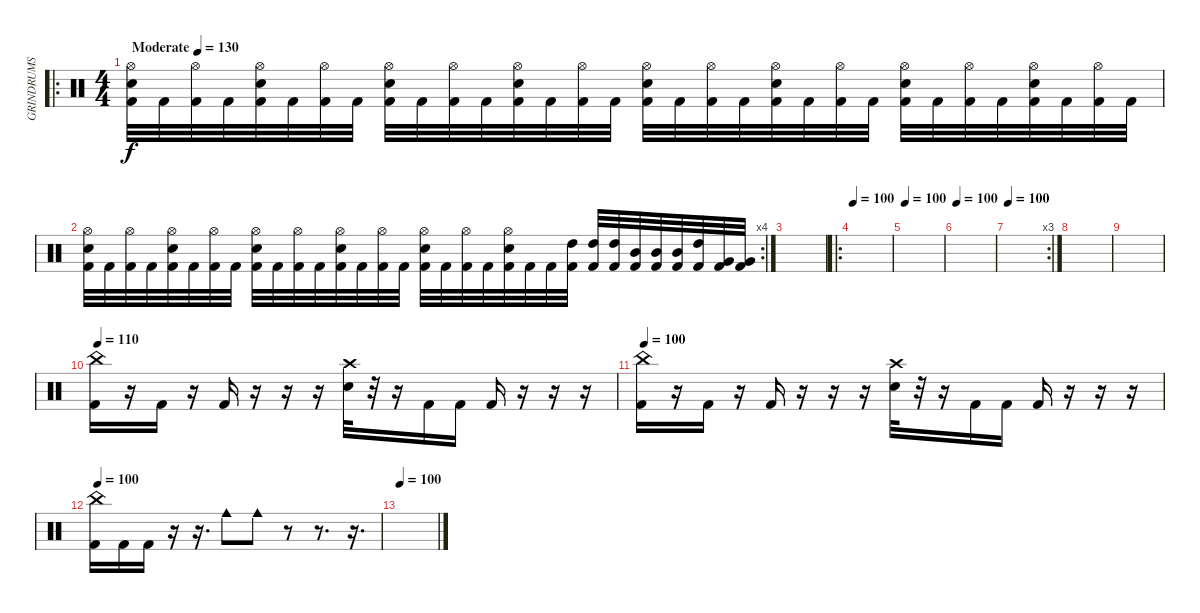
\track ("GRINDRUMS" "GRINDRUMS") {instrument percussion}
\staff {score}
\articulation defaults
\ro
\ts (4 4)
\tempo (130 "Moderate")
\clef neutral
\ks c
("Kick (hit) 2" "Snare (hit) 2" "Hi-Hat (open)").32{dy f} "Kick (hit) 2".32 ("Kick (hit) 2" "Hi-Hat (open)").32 "Kick (hit) 2".32 ("Kick (hit) 2" "Snare (hit) 2" "Hi-Hat (open)").32 "Kick (hit) 2".32 ("Kick (hit) 2" "Hi-Hat (open)").32 "Kick (hit) 2".32 ("Kick (hit) 2" "Snare (hit) 2" "Hi-Hat (open)").32 "Kick (hit) 2".32 ("Kick (hit) 2" "Hi-Hat (open)").32 "Kick (hit) 2".32 ("Kick (hit) 2" "Snare (hit) 2" "Hi-Hat (open)").32 "Kick (hit) 2".32 ("Kick (hit) 2" "Hi-Hat (open)").32 "Kick (hit) 2".32 ("Kick (hit) 2" "Snare (hit) 2" "Hi-Hat (open)").32 "Kick (hit) 2".32 ("Kick (hit) 2" "Hi-Hat (open)").32 "Kick (hit) 2".32 ("Kick (hit) 2" "Snare (hit) 2" "Hi-Hat (open)").32 "Kick (hit) 2".32 ("Kick (hit) 2" "Hi-Hat (open)").32 "Kick (hit) 2".32 ("Kick (hit) 2" "Snare (hit) 2" "Hi-Hat (open)").32 "Kick (hit) 2".32 ("Kick (hit) 2" "Hi-Hat (open)").32 "Kick (hit) 2".32 ("Kick (hit) 2" "Snare (hit) 2" "Hi-Hat (open)").32 "Kick (hit) 2".32 ("Kick (hit) 2" "Hi-Hat (open)").32 "Kick (hit) 2".32 |
\rc 4
("Kick (hit) 2" "Snare (hit) 2" "Hi-Hat (open)").32 "Kick (hit) 2".32 ("Kick (hit) 2" "Hi-Hat (open)").32 "Kick (hit) 2".32 ("Kick (hit) 2" "Snare (hit) 2" "Hi-Hat (open)").32 "Kick (hit) 2".32 ("Kick (hit) 2" "Hi-Hat (open)").32 "Kick (hit) 2".32 ("Kick (hit) 2" "Snare (hit) 2" "Hi-Hat (open)").32 "Kick (hit) 2".32 ("Kick (hit) 2" "Hi-Hat (open)").32 "Kick (hit) 2".32 ("Kick (hit) 2" "Snare (hit) 2" "Hi-Hat (open)").32 "Kick (hit) 2".32 ("Kick (hit) 2" "Hi-Hat (open)").32 "Kick (hit) 2".32 ("Kick (hit) 2" "Snare (hit) 2" "Hi-Hat (open)").32 "Kick (hit) 2".32 ("Kick (hit) 2" "Hi-Hat (open)").32 "Kick (hit) 2".32 ("Kick (hit) 2" "Snare (hit) 2" "Hi-Hat (open)").32 "Kick (hit) 2".32 "Kick (hit) 2".32 ("Kick (hit) 2" "High Tom (hit)").32 ("Kick (hit) 2" "High Tom (hit)").32 ("Kick (hit) 2" "High Tom (hit)").32 ("Kick (hit) 2" "Mid Tom (hit)").32 ("Kick (hit) 2" "Mid Tom (hit)").32 ("Kick (hit) 2" "Mid Tom (hit)").32 ("Kick (hit) 2" "High Tom (hit)").32 ("Kick (hit) 2" "Very Low Tom (hit)").32 ("Kick (hit) 2" "Very Low Tom (hit)").32 |
|
\ro
\tempo 100
|
\tempo 100
|
\tempo 100
|
\rc 3
\tempo 100
|
|
|
\tempo 100
\tempo 110
("China (hit)" "Kick (hit) 2").16 r.16 "Kick (hit) 2".16 r.16 "Kick (hit) 2".16 r.16 r.16 r.16 ("Snare (hit) 2" "Crash high (hit)").32 r.32 r.16 "Kick (hit) 2".16 "Kick (hit) 2".16 "Kick (hit) 2".16 r.16 r.16 r.16 |
\tempo 100
("China (hit)" "Kick (hit) 2").16 r.16 "Kick (hit) 2".16 r.16 "Kick (hit) 2".16 r.16 r.16 r.16 ("Crash high (hit)" "Snare (hit) 2").32 r.32 r.16 "Kick (hit) 2".16 "Kick (hit) 2".16 "Kick (hit) 2".16 r.16 r.16 r.16 |
\tempo 100
("China (hit)" "Kick (hit) 2").16 "Kick (hit) 2".16 "Kick (hit) 2".16 r.16 r.16{d} "Cowbell medium (hit)".8 "Cowbell medium (hit)".8 r.8 r.8{d} r.16{d} |
\tempo 100
